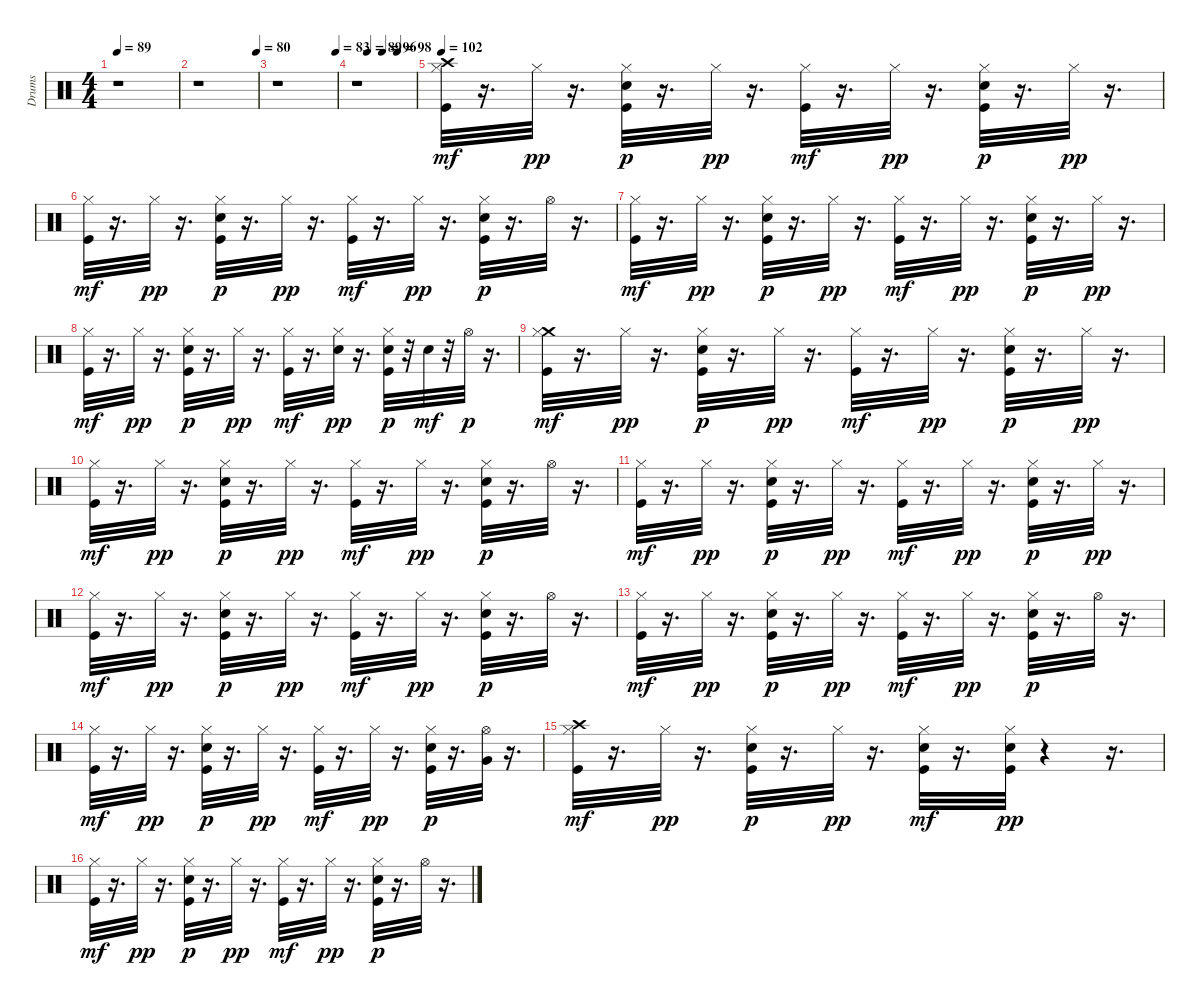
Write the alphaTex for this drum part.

\track ("Drums" "Drums") {instrument percussion}
\staff {score}
\articulation defaults
\ts (4 4)
\tempo 89
\clef neutral
\ks c
r.1{dy mf} |
\tempo (80 0.9895833333333334)
r.1 |
\tempo (83 0.9895833333333334)
r.1 |
\tempo (89 0.19791666666666666)
\tempo (96 0.4479166666666667)
\tempo (98 0.6979166666666666)
r.1 |
\tempo 102
("Crash high (hit)" "Hi-Hat (closed)" "Kick (hit)").32 r.16{d} "Hi-Hat (closed)".32{dy pp} r.16{d} ("Hi-Hat (closed)" "Electric Snare (hit)" "Kick (hit)").32{dy p} r.16{d} "Hi-Hat (closed)".32{dy pp} r.16{d} ("Hi-Hat (closed)" "Kick (hit)").32{dy mf} r.16{d} "Hi-Hat (closed)".32{dy pp} r.16{d} ("Hi-Hat (closed)" "Electric Snare (hit)" "Kick (hit)").32{dy p} r.16{d} "Hi-Hat (closed)".32{dy pp} r.16{d} |
("Hi-Hat (closed)" "Kick (hit)").32{dy mf} r.16{d} "Hi-Hat (closed)".32{dy pp} r.16{d} ("Hi-Hat (closed)" "Electric Snare (hit)" "Kick (hit)").32{dy p} r.16{d} "Hi-Hat (closed)".32{dy pp} r.16{d} ("Hi-Hat (closed)" "Kick (hit)").32{dy mf} r.16{d} "Hi-Hat (closed)".32{dy pp} r.16{d} ("Hi-Hat (closed)" "Electric Snare (hit)" "Kick (hit)").32{dy p} r.16{d} "Hi-Hat (open)".32 r.16{d} |
("Hi-Hat (closed)" "Kick (hit)").32{dy mf} r.16{d} "Hi-Hat (closed)".32{dy pp} r.16{d} ("Hi-Hat (closed)" "Electric Snare (hit)" "Kick (hit)").32{dy p} r.16{d} "Hi-Hat (closed)".32{dy pp} r.16{d} ("Hi-Hat (closed)" "Kick (hit)").32{dy mf} r.16{d} "Hi-Hat (closed)".32{dy pp} r.16{d} ("Hi-Hat (closed)" "Electric Snare (hit)" "Kick (hit)").32{dy p} r.16{d} "Hi-Hat (closed)".32{dy pp} r.16{d} |
("Hi-Hat (closed)" "Kick (hit)").32{dy mf} r.16{d} "Hi-Hat (closed)".32{dy pp} r.16{d} ("Hi-Hat (closed)" "Electric Snare (hit)" "Kick (hit)").32{dy p} r.16{d} "Hi-Hat (closed)".32{dy pp} r.16{d} ("Hi-Hat (closed)" "Kick (hit)").32{dy mf} r.16{d} ("Electric Snare (hit)" "Hi-Hat (closed)").32{dy pp} r.16{d} ("Hi-Hat (closed)" "Electric Snare (hit)" "Kick (hit)").32{dy p} r.32 "Electric Snare (hit)".32{dy mf} r.32 "Hi-Hat (open)".32{dy p} r.16{d} |
("Crash medium (hit)" "Hi-Hat (closed)" "Kick (hit)").32{dy mf} r.16{d} "Hi-Hat (closed)".32{dy pp} r.16{d} ("Hi-Hat (closed)" "Electric Snare (hit)" "Kick (hit)").32{dy p} r.16{d} "Hi-Hat (closed)".32{dy pp} r.16{d} ("Hi-Hat (closed)" "Kick (hit)").32{dy mf} r.16{d} "Hi-Hat (closed)".32{dy pp} r.16{d} ("Hi-Hat (closed)" "Electric Snare (hit)" "Kick (hit)").32{dy p} r.16{d} "Hi-Hat (closed)".32{dy pp} r.16{d} |
("Hi-Hat (closed)" "Kick (hit)").32{dy mf} r.16{d} "Hi-Hat (closed)".32{dy pp} r.16{d} ("Hi-Hat (closed)" "Electric Snare (hit)" "Kick (hit)").32{dy p} r.16{d} "Hi-Hat (closed)".32{dy pp} r.16{d} ("Hi-Hat (closed)" "Kick (hit)").32{dy mf} r.16{d} "Hi-Hat (closed)".32{dy pp} r.16{d} ("Hi-Hat (closed)" "Electric Snare (hit)" "Kick (hit)").32{dy p} r.16{d} "Hi-Hat (open)".32 r.16{d} |
("Hi-Hat (closed)" "Kick (hit)").32{dy mf} r.16{d} "Hi-Hat (closed)".32{dy pp} r.16{d} ("Hi-Hat (closed)" "Electric Snare (hit)" "Kick (hit)").32{dy p} r.16{d} "Hi-Hat (closed)".32{dy pp} r.16{d} ("Hi-Hat (closed)" "Kick (hit)").32{dy mf} r.16{d} "Hi-Hat (closed)".32{dy pp} r.16{d} ("Hi-Hat (closed)" "Electric Snare (hit)" "Kick (hit)").32{dy p} r.16{d} "Hi-Hat (closed)".32{dy pp} r.16{d} |
("Hi-Hat (closed)" "Kick (hit)").32{dy mf} r.16{d} "Hi-Hat (closed)".32{dy pp} r.16{d} ("Hi-Hat (closed)" "Electric Snare (hit)" "Kick (hit)").32{dy p} r.16{d} "Hi-Hat (closed)".32{dy pp} r.16{d} ("Hi-Hat (closed)" "Kick (hit)").32{dy mf} r.16{d} "Hi-Hat (closed)".32{dy pp} r.16{d} ("Hi-Hat (closed)" "Electric Snare (hit)" "Kick (hit)").32{dy p} r.16{d} "Hi-Hat (open)".32 r.16{d} |
("Hi-Hat (closed)" "Kick (hit)").32{dy mf} r.16{d} "Hi-Hat (closed)".32{dy pp} r.16{d} ("Hi-Hat (closed)" "Electric Snare (hit)" "Kick (hit)").32{dy p} r.16{d} "Hi-Hat (closed)".32{dy pp} r.16{d} ("Hi-Hat (closed)" "Kick (hit)").32{dy mf} r.16{d} "Hi-Hat (closed)".32{dy pp} r.16{d} ("Hi-Hat (closed)" "Electric Snare (hit)" "Kick (hit)").32{dy p} r.16{d} "Hi-Hat (open)".32 r.16{d} |
("Hi-Hat (closed)" "Kick (hit)").32{dy mf} r.16{d} "Hi-Hat (closed)".32{dy pp} r.16{d} ("Hi-Hat (closed)" "Electric Snare (hit)" "Kick (hit)").32{dy p} r.16{d} "Hi-Hat (closed)".32{dy pp} r.16{d} ("Hi-Hat (closed)" "Kick (hit)").32{dy mf} r.16{d} "Hi-Hat (closed)".32{dy pp} r.16{d} ("Hi-Hat (closed)" "Electric Snare (hit)" "Kick (hit)").32{dy p} r.16{d} ("Very Low Tom (hit)" "Hi-Hat (open)").32 r.16{d} |
("Crash high (hit)" "Hi-Hat (closed)" "Kick (hit)").32{dy mf} r.16{d} "Hi-Hat (closed)".32{dy pp} r.16{d} ("Hi-Hat (closed)" "Electric Snare (hit)" "Kick (hit)").32{dy p} r.16{d} "Hi-Hat (closed)".32{dy pp} r.16{d} ("Electric Snare (hit)" "Hi-Hat (closed)" "Kick (hit)").32{dy mf} r.16{d} ("Kick (hit)" "Electric Snare (hit)" "Hi-Hat (closed)").32{dy pp} r.4 r.16{d} |
("Hi-Hat (closed)" "Kick (hit)").32{dy mf} r.16{d} "Hi-Hat (closed)".32{dy pp} r.16{d} ("Hi-Hat (closed)" "Electric Snare (hit)" "Kick (hit)").32{dy p} r.16{d} "Hi-Hat (closed)".32{dy pp} r.16{d} ("Hi-Hat (closed)" "Kick (hit)").32{dy mf} r.16{d} "Hi-Hat (closed)".32{dy pp} r.16{d} ("Hi-Hat (closed)" "Electric Snare (hit)" "Kick (hit)").32{dy p} r.16{d} "Hi-Hat (open)".32 r.16{d}
